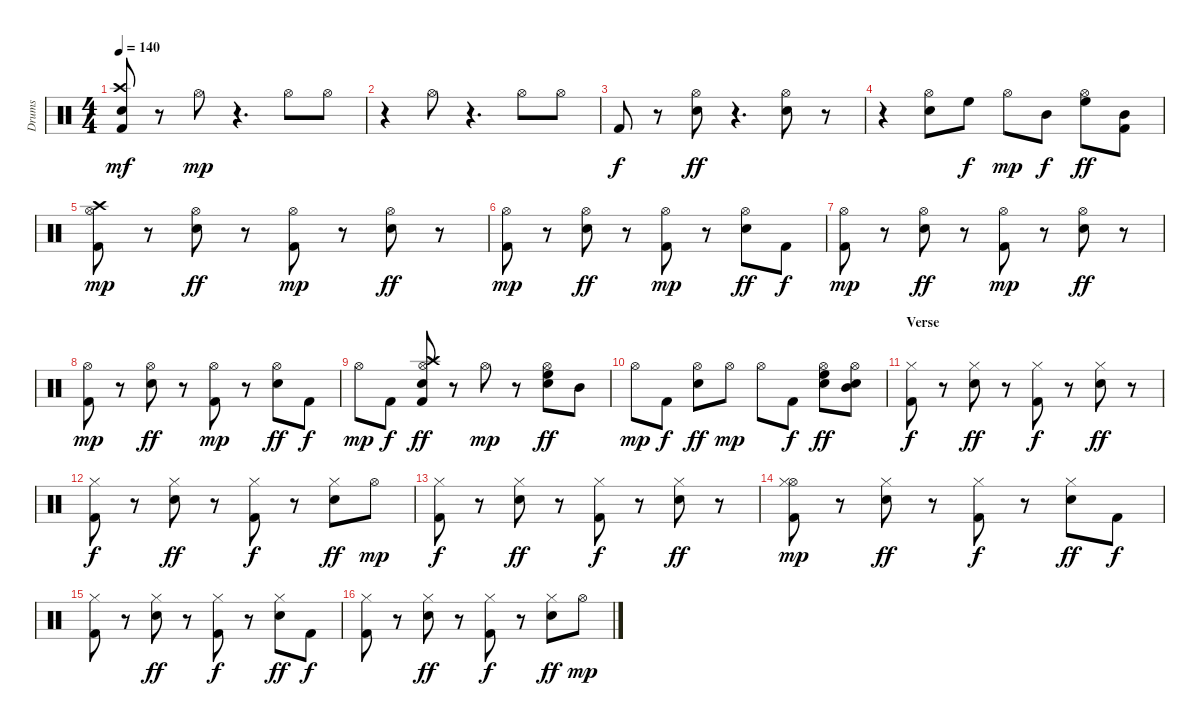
\track ("Drums" "Drums") {instrument percussion}
\staff {score}
\articulation defaults
\ts (4 4)
\tempo 140
\clef neutral
\ks c
("Kick (hit) 2" "Crash high (hit)" "Electric Snare (hit)").8{dy mf} r.8 "Hi-Hat (open)".8{dy mp} r.4{d} "Hi-Hat (open)".8 "Hi-Hat (open)".8 |
r.4 "Hi-Hat (open)".8 r.4{d} "Hi-Hat (open)".8 "Hi-Hat (open)".8 |
"Kick (hit) 2".8{dy f} r.8 ("Hi-Hat (open)" "Snare (hit) 2").8{dy ff} r.4{d} ("Hi-Hat (open)" "Snare (hit) 2").8 r.8 |
r.4 ("Hi-Hat (open)" "Snare (hit) 2").8 "High Floor Tom (hit)".8{dy f} "Hi-Hat (open)".8{dy mp} "Mid Tom (hit)".8{dy f} ("Hi-Hat (open)" "High Floor Tom (hit)").8{dy ff} ("Kick (hit) 2" "Mid Tom (hit)").8 |
("Kick (hit) 2" "Hi-Hat (open)" "Crash high (hit)").8{dy mp} r.8 ("Hi-Hat (open)" "Snare (hit) 2").8{dy ff} r.8 ("Kick (hit) 2" "Hi-Hat (open)").8{dy mp} r.8 ("Hi-Hat (open)" "Snare (hit) 2").8{dy ff} r.8 |
("Kick (hit) 2" "Hi-Hat (open)").8{dy mp} r.8 ("Hi-Hat (open)" "Snare (hit) 2").8{dy ff} r.8 ("Kick (hit) 2" "Hi-Hat (open)").8{dy mp} r.8 ("Hi-Hat (open)" "Snare (hit) 2").8{dy ff} "Kick (hit) 2".8{dy f} |
("Kick (hit) 2" "Hi-Hat (open)").8{dy mp} r.8 ("Hi-Hat (open)" "Snare (hit) 2").8{dy ff} r.8 ("Kick (hit) 2" "Hi-Hat (open)").8{dy mp} r.8 ("Hi-Hat (open)" "Snare (hit) 2").8{dy ff} r.8 |
("Kick (hit) 2" "Hi-Hat (open)").8{dy mp} r.8 ("Hi-Hat (open)" "Snare (hit) 2").8{dy ff} r.8 ("Kick (hit) 2" "Hi-Hat (open)").8{dy mp} r.8 ("Hi-Hat (open)" "Snare (hit) 2").8{dy ff} "Kick (hit) 2".8{dy f} |
"Hi-Hat (open)".8{dy mp} "Kick (hit) 2".8{dy f} ("Kick (hit) 2" "Hi-Hat (open)" "Snare (hit) 2" "Crash high (hit)").8{dy ff} r.8 "Hi-Hat (open)".8{dy mp} r.8 ("Hi-Hat (open)" "Snare (hit) 2" "High Floor Tom (hit)").8{dy ff} "Mid Tom (hit)".8 |
"Hi-Hat (open)".8{dy mp} "Kick (hit) 2".8{dy f} ("Hi-Hat (open)" "Snare (hit) 2").8{dy ff} "Hi-Hat (open)".8{dy mp} "Hi-Hat (open)".8 "Kick (hit) 2".8{dy f} ("Hi-Hat (open)" "Snare (hit) 2" "High Floor Tom (hit)").8{dy ff} ("Hi-Hat (open)" "Snare (hit) 2" "Mid Tom (hit)").8 |
\section ("" "Verse")
("Hi-Hat (closed)" "Kick (hit) 2").8{dy f} r.8 ("Snare (hit) 2" "Hi-Hat (closed)").8{dy ff} r.8 ("Kick (hit) 2" "Hi-Hat (closed)").8{dy f} r.8 ("Snare (hit) 2" "Hi-Hat (closed)").8{dy ff} r.8 |
("Hi-Hat (closed)" "Kick (hit) 2").8{dy f} r.8 ("Snare (hit) 2" "Hi-Hat (closed)").8{dy ff} r.8 ("Hi-Hat (closed)" "Kick (hit) 2").8{dy f} r.8 ("Hi-Hat (closed)" "Snare (hit) 2").8{dy ff} "Hi-Hat (open)".8{dy mp} |
("Hi-Hat (closed)" "Kick (hit) 2").8{dy f} r.8 ("Snare (hit) 2" "Hi-Hat (closed)").8{dy ff} r.8 ("Kick (hit) 2" "Hi-Hat (closed)").8{dy f} r.8 ("Snare (hit) 2" "Hi-Hat (closed)").8{dy ff} r.8 |
("Hi-Hat (open)" "Kick (hit) 2" "Hi-Hat (closed)").8{dy mp} r.8 ("Snare (hit) 2" "Hi-Hat (closed)").8{dy ff} r.8 ("Kick (hit) 2" "Hi-Hat (closed)").8{dy f} r.8 ("Snare (hit) 2" "Hi-Hat (closed)").8{dy ff} "Kick (hit) 2".8{dy f} |
("Kick (hit) 2" "Hi-Hat (closed)").8 r.8 ("Hi-Hat (closed)" "Snare (hit) 2").8{dy ff} r.8 ("Kick (hit) 2" "Hi-Hat (closed)").8{dy f} r.8 ("Snare (hit) 2" "Hi-Hat (closed)").8{dy ff} "Kick (hit) 2".8{dy f} |
("Kick (hit) 2" "Hi-Hat (closed)").8 r.8 ("Snare (hit) 2" "Hi-Hat (closed)").8{dy ff} r.8 ("Kick (hit) 2" "Hi-Hat (closed)").8{dy f} r.8 ("Hi-Hat (closed)" "Snare (hit) 2").8{dy ff} "Hi-Hat (open)".8{dy mp}
